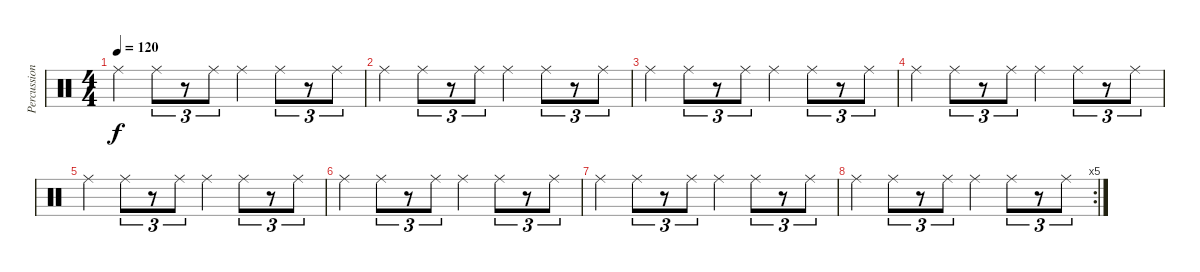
\track ("Percussions cymbals" "Percussion") {instrument percussion}
\staff {score}
\articulation defaults
\ts (4 4)
\tempo 120
\clef neutral
\ks c "Ride (middle)".4{dy f} "Ride (middle)".8{tu (3 2)}
r.8{tu (3 2)} "Ride (middle)".8{tu (3 2)} "Ride (middle)".4 "Ride (middle)".8{tu (3 2)} r.8{tu (3 2)} "Ride (middle)".8{tu (3 2)} |
"Ride (middle)".4 "Ride (middle)".8{tu (3 2)} r.8{tu (3 2)} "Ride (middle)".8{tu (3 2)} "Ride (middle)".4 "Ride (middle)".8{tu (3 2)} r.8{tu (3 2)} "Ride (middle)".8{tu (3 2)} |
"Ride (middle)".4 "Ride (middle)".8{tu (3 2)} r.8{tu (3 2)} "Ride (middle)".8{tu (3 2)} "Ride (middle)".4 "Ride (middle)".8{tu (3 2)} r.8{tu (3 2)} "Ride (middle)".8{tu (3 2)} |
"Ride (middle)".4 "Ride (middle)".8{tu (3 2)} r.8{tu (3 2)} "Ride (middle)".8{tu (3 2)} "Ride (middle)".4 "Ride (middle)".8{tu (3 2)} r.8{tu (3 2)} "Ride (middle)".8{tu (3 2)} |
"Ride (middle)".4 "Ride (middle)".8{tu (3 2)} r.8{tu (3 2)} "Ride (middle)".8{tu (3 2)} "Ride (middle)".4 "Ride (middle)".8{tu (3 2)} r.8{tu (3 2)} "Ride (middle)".8{tu (3 2)} |
"Ride (middle)".4 "Ride (middle)".8{tu (3 2)} r.8{tu (3 2)} "Ride (middle)".8{tu (3 2)} "Ride (middle)".4 "Ride (middle)".8{tu (3 2)} r.8{tu (3 2)} "Ride (middle)".8{tu (3 2)} |
"Ride (middle)".4 "Ride (middle)".8{tu (3 2)} r.8{tu (3 2)} "Ride (middle)".8{tu (3 2)} "Ride (middle)".4 "Ride (middle)".8{tu (3 2)} r.8{tu (3 2)} "Ride (middle)".8{tu (3 2)} |
\rc 5 "Ride (middle)".4 "Ride (middle)".8{tu (3 2)}
r.8{tu (3 2)} "Ride (middle)".8{tu (3 2)} "Ride (middle)".4 "Ride (middle)".8{tu (3 2)} r.8{tu (3 2)} "Ride (middle)".8{tu (3 2)}
